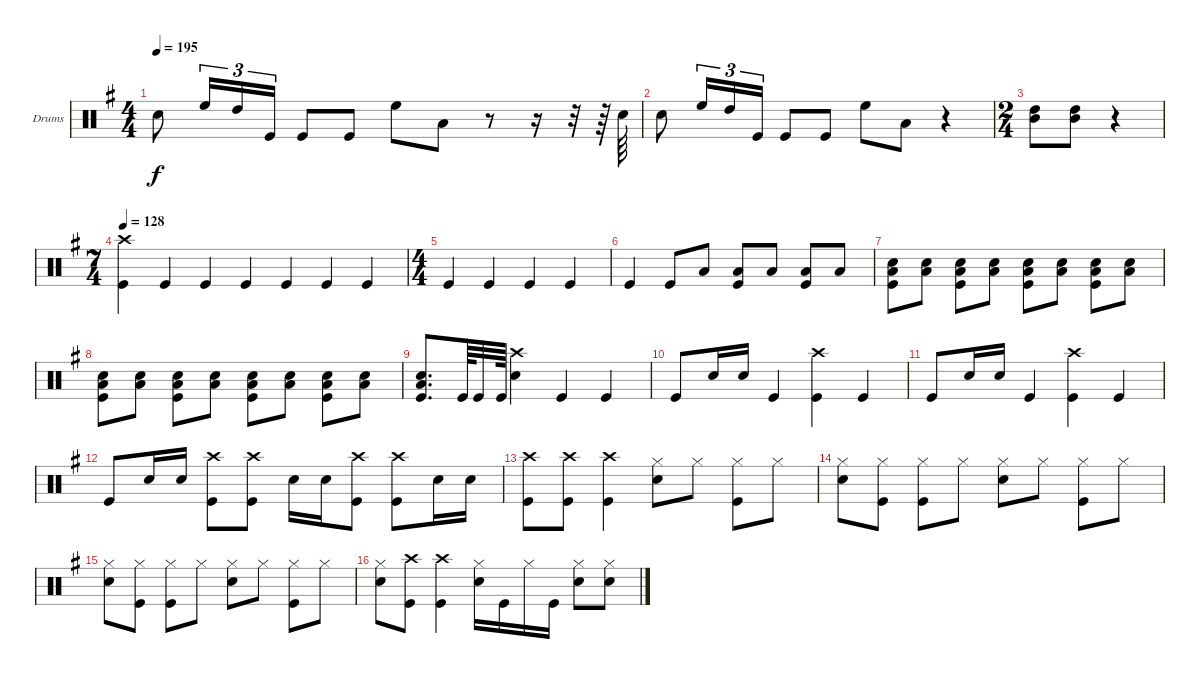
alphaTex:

\defaultSystemsLayout 4
\bracketExtendMode groupsimilarinstruments
\firstSystemTrackNameOrientation horizontal
\otherSystemsTrackNameOrientation horizontal
\track ("Drumkit" "Drums") {instrument percussion}
\staff {score}
\articulation defaults
\ts (4 4)
\tempo 195
\clef neutral
\ks g "Snare (hit) 2".8{dy f} "High Floor Tom (hit)".16{tu (3 2)} "High Tom (hit)".16{tu (3 2)} "Kick (hit)".16{tu (3 2)} "Kick (hit)".8 "Kick (hit)".8 "High Floor Tom (hit)".8 "Low Tom (hit)".8
r.8 r.16 r.32 r.64 "Snare (hit) 2".64 |
"Snare (hit) 2".8 "High Floor Tom (hit)".16{tu (3 2)} "High Tom (hit)".16{tu (3 2)} "Kick (hit)".16{tu (3 2)} "Kick (hit)".8 "Kick (hit)".8 "High Floor Tom (hit)".8 "Low Tom (hit)".8 r.4 |
\ts (2 4)
("High Tom (hit)" "Mid Tom (hit)").8 ("High Tom (hit)" "Mid Tom (hit)").8 r.4 |
\ts (7 4)
\tempo 128
("Kick (hit)" "Crash high (hit)").4 "Kick (hit)".4 "Kick (hit)".4 "Kick (hit)".4 "Kick (hit)".4 "Kick (hit)".4 "Kick (hit)".4 |
\ts (4 4)
"Kick (hit)".4 "Kick (hit)".4 "Kick (hit)".4 "Kick (hit)".4 |
"Kick (hit)".4 "Kick (hit)".8 "Low Tom (hit)".8 ("Low Tom (hit)" "Kick (hit)").8 "Low Tom (hit)".8 ("Low Tom (hit)" "Kick (hit)").8 "Low Tom (hit)".8 |
("Snare (hit) 2" "Low Tom (hit)" "Kick (hit)").8 ("Snare (hit) 2" "Low Tom (hit)").8 ("Snare (hit) 2" "Low Tom (hit)" "Kick (hit)").8 ("Snare (hit) 2" "Low Tom (hit)").8 ("Snare (hit) 2" "Low Tom (hit)" "Kick (hit)").8 ("Snare (hit) 2" "Low Tom (hit)").8 ("Snare (hit) 2" "Low Tom (hit)" "Kick (hit)").8 ("Snare (hit) 2" "Low Tom (hit)").8 |
("Snare (hit) 2" "Low Tom (hit)" "Kick (hit)").8 ("Snare (hit) 2" "Low Tom (hit)").8 ("Snare (hit) 2" "Low Tom (hit)" "Kick (hit)").8 ("Snare (hit) 2" "Low Tom (hit)").8 ("Snare (hit) 2" "Low Tom (hit)" "Kick (hit)").8 ("Snare (hit) 2" "Low Tom (hit)").8 ("Snare (hit) 2" "Low Tom (hit)" "Kick (hit)").8 ("Snare (hit) 2" "Low Tom (hit)").8 |
("Kick (hit)" "Snare (hit) 2" "Low Tom (hit)").8{d} "Kick (hit)".64 "Kick (hit)".32 "Kick (hit)".64 ("Crash high (hit)" "Snare (hit) 2").4 "Kick (hit)".4 "Kick (hit)".4 |
"Kick (hit)".8 "Snare (hit) 2".16 "Snare (hit) 2".16 "Kick (hit)".4 ("Crash high (hit)" "Kick (hit)").4 "Kick (hit)".4 |
"Kick (hit)".8 "Snare (hit) 2".16 "Snare (hit) 2".16 "Kick (hit)".4 ("Crash high (hit)" "Kick (hit)").4 "Kick (hit)".4 |
"Kick (hit)".8 "Snare (hit) 2".16 "Snare (hit) 2".16 ("Kick (hit)" "Crash high (hit)").8 ("Kick (hit)" "Crash high (hit)").8 "Snare (hit) 2".16 "Snare (hit) 2".16 ("Kick (hit)" "Crash high (hit)").8 ("Crash high (hit)" "Kick (hit)").8 "Snare (hit) 2".16 "Snare (hit) 2".16 |
("Kick (hit)" "Crash high (hit)").8 ("Kick (hit)" "Crash high (hit)").8 ("Kick (hit)" "Crash high (hit)").4 ("Hi-Hat (closed)" "Snare (hit) 2").8 "Hi-Hat (closed)".8 ("Kick (hit)" "Hi-Hat (closed)").8 "Hi-Hat (closed)".8 |
("Hi-Hat (closed)" "Snare (hit) 2").8 ("Kick (hit)" "Hi-Hat (closed)").8 ("Hi-Hat (closed)" "Kick (hit)").8 "Hi-Hat (closed)".8 ("Hi-Hat (closed)" "Snare (hit) 2").8 "Hi-Hat (closed)".8 ("Hi-Hat (closed)" "Kick (hit)").8 "Hi-Hat (closed)".8 |
("Hi-Hat (closed)" "Snare (hit) 2").8 ("Kick (hit)" "Hi-Hat (closed)").8 ("Hi-Hat (closed)" "Kick (hit)").8 "Hi-Hat (closed)".8 ("Hi-Hat (closed)" "Snare (hit) 2").8 "Hi-Hat (closed)".8 ("Hi-Hat (closed)" "Kick (hit)").8 "Hi-Hat (closed)".8 |
("Hi-Hat (closed)" "Snare (hit) 2").8 ("Kick (hit)" "Crash high (hit)").8 ("Kick (hit)" "Crash high (hit)").4 ("Hi-Hat (closed)" "Snare (hit) 2").16 "Kick (hit)".16 "Hi-Hat (closed)".16 "Kick (hit)".16 ("Snare (hit) 2" "Hi-Hat (closed)").8 ("Snare (hit) 2" "Hi-Hat (closed)").8
